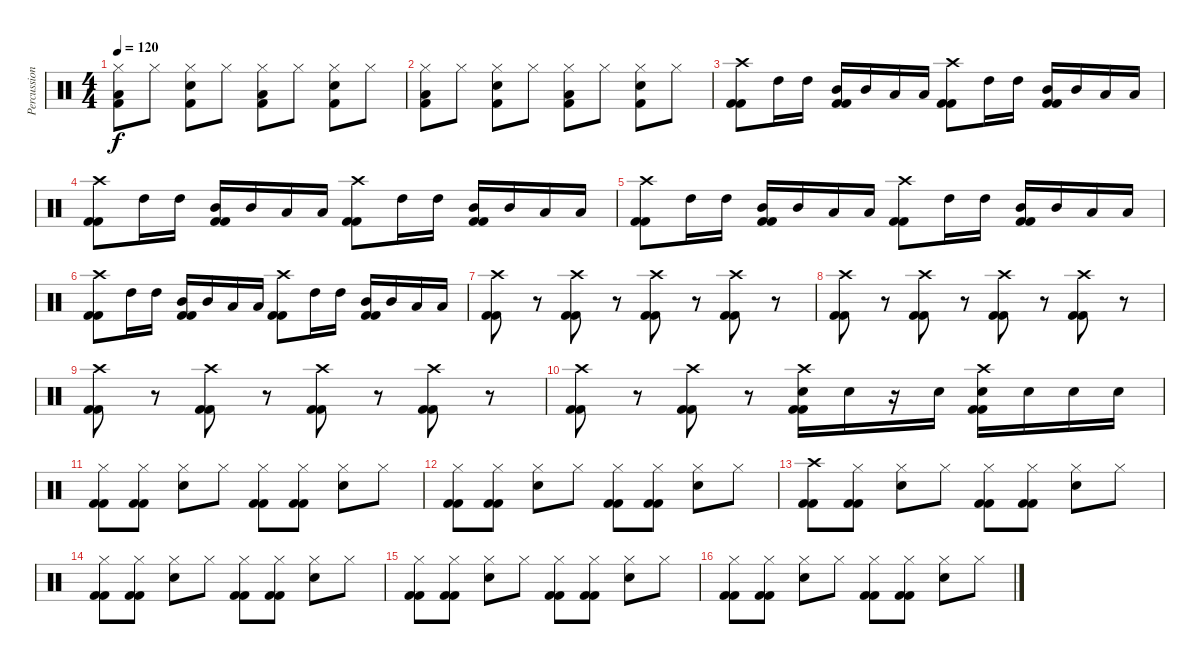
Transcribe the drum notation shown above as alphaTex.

\track ("Percussions" "Percussion") {instrument percussion}
\staff {score}
\articulation defaults
\ts (4 4)
\tempo 120
\clef neutral
\ks c
("Hi-Hat (closed)" "Low Floor Tom (hit)" "Kick (hit) 2").8{dy f} "Hi-Hat (closed)".8 ("Hi-Hat (closed)" "Snare (hit) 2" "Kick (hit) 2").8 "Hi-Hat (closed)".8 ("Hi-Hat (closed)" "Low Floor Tom (hit)" "Kick (hit) 2").8 "Hi-Hat (closed)".8 ("Hi-Hat (closed)" "Snare (hit) 2" "Kick (hit) 2").8 "Hi-Hat (closed)".8 |
("Hi-Hat (closed)" "Low Floor Tom (hit)" "Kick (hit) 2").8 "Hi-Hat (closed)".8 ("Hi-Hat (closed)" "Snare (hit) 2" "Kick (hit) 2").8 "Hi-Hat (closed)".8 ("Hi-Hat (closed)" "Low Floor Tom (hit)" "Kick (hit) 2").8 "Hi-Hat (closed)".8 ("Hi-Hat (closed)" "Snare (hit) 2" "Kick (hit) 2").8 "Hi-Hat (closed)".8 |
("Crash high (hit)" "Kick (hit) 2" "Kick (hit) 2").8 "High Tom (hit)".16 "High Tom (hit)".16 ("Mid Tom (hit)" "Kick (hit) 2" "Kick (hit) 2").16 "Mid Tom (hit)".16 "Low Tom (hit)".16 "Low Tom (hit)".16 ("Crash high (hit)" "Kick (hit) 2" "Kick (hit) 2").8 "High Tom (hit)".16 "High Tom (hit)".16 ("Mid Tom (hit)" "Kick (hit) 2" "Kick (hit) 2").16 "Mid Tom (hit)".16 "Low Tom (hit)".16 "Low Tom (hit)".16 |
("Crash high (hit)" "Kick (hit) 2" "Kick (hit) 2").8 "High Tom (hit)".16 "High Tom (hit)".16 ("Mid Tom (hit)" "Kick (hit) 2" "Kick (hit) 2").16 "Mid Tom (hit)".16 "Low Tom (hit)".16 "Low Tom (hit)".16 ("Crash high (hit)" "Kick (hit) 2" "Kick (hit) 2").8 "High Tom (hit)".16 "High Tom (hit)".16 ("Mid Tom (hit)" "Kick (hit) 2" "Kick (hit) 2").16 "Mid Tom (hit)".16 "Low Tom (hit)".16 "Low Tom (hit)".16 |
("Crash high (hit)" "Kick (hit) 2" "Kick (hit) 2").8 "High Tom (hit)".16 "High Tom (hit)".16 ("Mid Tom (hit)" "Kick (hit) 2" "Kick (hit) 2").16 "Mid Tom (hit)".16 "Low Tom (hit)".16 "Low Tom (hit)".16 ("Crash high (hit)" "Kick (hit) 2" "Kick (hit) 2").8 "High Tom (hit)".16 "High Tom (hit)".16 ("Mid Tom (hit)" "Kick (hit) 2" "Kick (hit) 2").16 "Mid Tom (hit)".16 "Low Tom (hit)".16 "Low Tom (hit)".16 |
("Crash high (hit)" "Kick (hit) 2" "Kick (hit) 2").8 "High Tom (hit)".16 "High Tom (hit)".16 ("Mid Tom (hit)" "Kick (hit) 2" "Kick (hit) 2").16 "Mid Tom (hit)".16 "Low Tom (hit)".16 "Low Tom (hit)".16 ("Crash high (hit)" "Kick (hit) 2" "Kick (hit) 2").8 "High Tom (hit)".16 "High Tom (hit)".16 ("Mid Tom (hit)" "Kick (hit) 2" "Kick (hit) 2").16 "Mid Tom (hit)".16 "Low Tom (hit)".16 "Low Tom (hit)".16 |
("Crash high (hit)" "Kick (hit) 2" "Kick (hit) 2").8 r.8 ("Crash high (hit)" "Kick (hit) 2" "Kick (hit) 2").8 r.8 ("Crash high (hit)" "Kick (hit) 2" "Kick (hit) 2").8 r.8 ("Crash high (hit)" "Kick (hit) 2" "Kick (hit) 2").8 r.8 |
("Crash high (hit)" "Kick (hit) 2" "Kick (hit) 2").8 r.8 ("Crash high (hit)" "Kick (hit) 2" "Kick (hit) 2").8 r.8 ("Crash high (hit)" "Kick (hit) 2" "Kick (hit) 2").8 r.8 ("Crash high (hit)" "Kick (hit) 2" "Kick (hit) 2").8 r.8 |
("Crash high (hit)" "Kick (hit) 2" "Kick (hit) 2").8 r.8 ("Crash high (hit)" "Kick (hit) 2" "Kick (hit) 2").8 r.8 ("Crash high (hit)" "Kick (hit) 2" "Kick (hit) 2").8 r.8 ("Crash high (hit)" "Kick (hit) 2" "Kick (hit) 2").8 r.8 |
("Crash high (hit)" "Kick (hit) 2" "Kick (hit) 2").8 r.8 ("Crash high (hit)" "Kick (hit) 2" "Kick (hit) 2").8 r.8 ("Crash high (hit)" "Snare (hit) 2" "Kick (hit) 2" "Kick (hit) 2").16 "Snare (hit) 2".16 r.16 "Snare (hit) 2".16 ("Crash high (hit)" "Snare (hit) 2" "Kick (hit) 2" "Kick (hit) 2").16 "Snare (hit) 2".16 "Snare (hit) 2".16 "Snare (hit) 2".16 |
("Hi-Hat (closed)" "Kick (hit) 2" "Kick (hit) 2").8 ("Hi-Hat (closed)" "Kick (hit) 2" "Kick (hit) 2").8 ("Hi-Hat (closed)" "Snare (hit) 2").8 "Hi-Hat (closed)".8 ("Hi-Hat (closed)" "Kick (hit) 2" "Kick (hit) 2").8 ("Hi-Hat (closed)" "Kick (hit) 2" "Kick (hit) 2").8 ("Hi-Hat (closed)" "Snare (hit) 2").8 "Hi-Hat (closed)".8 |
("Hi-Hat (closed)" "Kick (hit) 2" "Kick (hit) 2").8 ("Hi-Hat (closed)" "Kick (hit) 2" "Kick (hit) 2").8 ("Hi-Hat (closed)" "Snare (hit) 2").8 "Hi-Hat (closed)".8 ("Hi-Hat (closed)" "Kick (hit) 2" "Kick (hit) 2").8 ("Hi-Hat (closed)" "Kick (hit) 2" "Kick (hit) 2").8 ("Hi-Hat (closed)" "Snare (hit) 2").8 "Hi-Hat (closed)".8 |
("Crash high (hit)" "Kick (hit) 2" "Kick (hit) 2").8 ("Hi-Hat (closed)" "Kick (hit) 2" "Kick (hit) 2").8 ("Hi-Hat (closed)" "Snare (hit) 2").8 "Hi-Hat (closed)".8 ("Hi-Hat (closed)" "Kick (hit) 2" "Kick (hit) 2").8 ("Hi-Hat (closed)" "Kick (hit) 2" "Kick (hit) 2").8 ("Hi-Hat (closed)" "Snare (hit) 2").8 "Hi-Hat (closed)".8 |
("Hi-Hat (closed)" "Kick (hit) 2" "Kick (hit) 2").8 ("Hi-Hat (closed)" "Kick (hit) 2" "Kick (hit) 2").8 ("Hi-Hat (closed)" "Snare (hit) 2").8 "Hi-Hat (closed)".8 ("Hi-Hat (closed)" "Kick (hit) 2" "Kick (hit) 2").8 ("Hi-Hat (closed)" "Kick (hit) 2" "Kick (hit) 2").8 ("Hi-Hat (closed)" "Snare (hit) 2").8 "Hi-Hat (closed)".8 |
("Hi-Hat (closed)" "Kick (hit) 2" "Kick (hit) 2").8 ("Hi-Hat (closed)" "Kick (hit) 2" "Kick (hit) 2").8 ("Hi-Hat (closed)" "Snare (hit) 2").8 "Hi-Hat (closed)".8 ("Hi-Hat (closed)" "Kick (hit) 2" "Kick (hit) 2").8 ("Hi-Hat (closed)" "Kick (hit) 2" "Kick (hit) 2").8 ("Hi-Hat (closed)" "Snare (hit) 2").8 "Hi-Hat (closed)".8 |
("Hi-Hat (closed)" "Kick (hit) 2" "Kick (hit) 2").8 ("Hi-Hat (closed)" "Kick (hit) 2" "Kick (hit) 2").8 ("Hi-Hat (closed)" "Snare (hit) 2").8 "Hi-Hat (closed)".8 ("Hi-Hat (closed)" "Kick (hit) 2" "Kick (hit) 2").8 ("Hi-Hat (closed)" "Kick (hit) 2" "Kick (hit) 2").8 ("Hi-Hat (closed)" "Snare (hit) 2").8 "Hi-Hat (closed)".8
